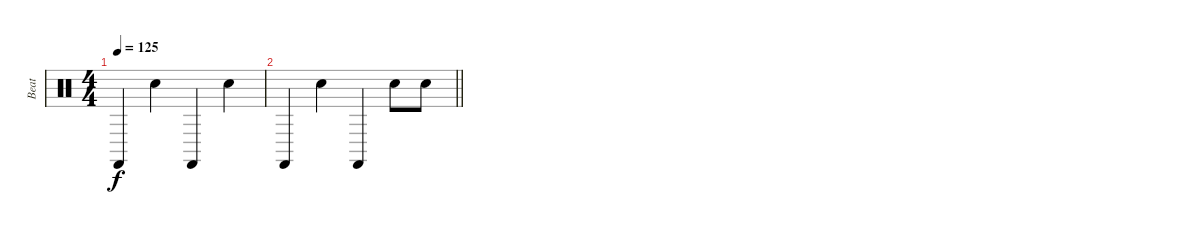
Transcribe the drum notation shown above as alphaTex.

\track ("Beat" "Beat") {instrument percussion}
\staff {score}
\articulation defaults
\ts (4 4)
\tempo 125
\clef neutral
\ks c "Castanets (hit)".4{dy f} "Hand Clap (hit)".4 "Castanets (hit)".4 "Hand Clap (hit)".4
|
\barLineRight lightlight "Castanets (hit)".4 "Hand Clap (hit)".4 "Castanets (hit)".4 "Hand Clap (hit)".8 "Hand Clap (hit)".8
